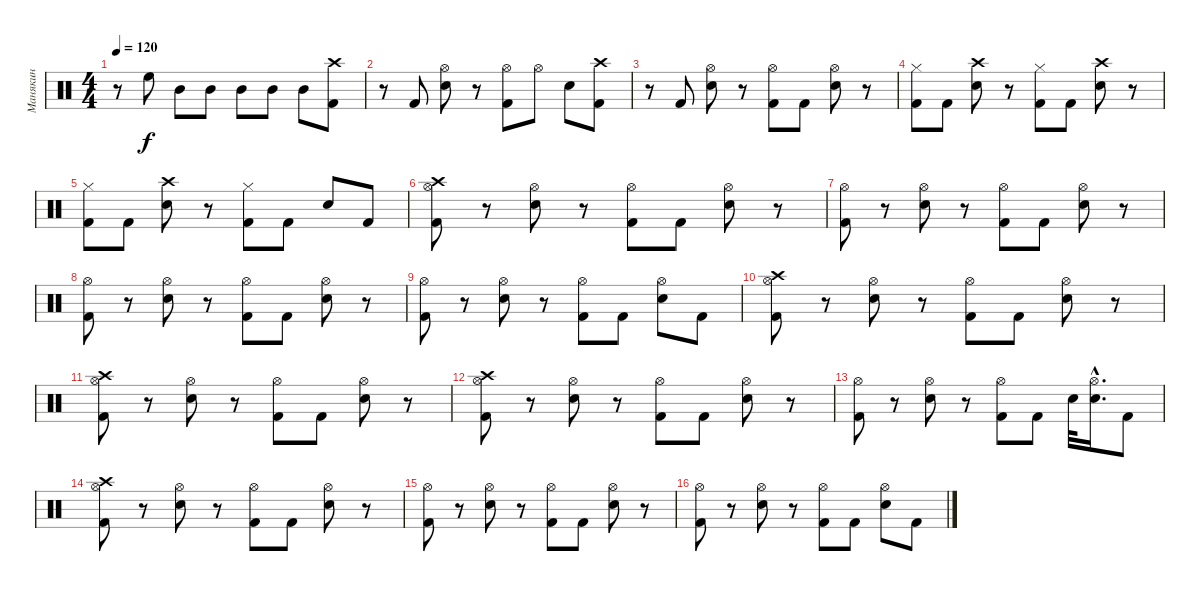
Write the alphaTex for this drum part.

\track ("Манякин" "Манякин") {instrument percussion}
\staff {score}
\articulation defaults
\ts (4 4)
\tempo 120
\clef neutral
\ks c
r.8{dy f} "High Floor Tom (hit)".8 "Mid Tom (hit)".8 "Mid Tom (hit)".8 "Mid Tom (hit)".8 "Mid Tom (hit)".8 "Mid Tom (hit)".8 ("Crash high (hit)" "Kick (hit) 2").8 |
r.8 "Kick (hit) 2".8 ("Hi-Hat (open)" "Electric Snare (hit)").8 r.8 ("Hi-Hat (open)" "Kick (hit) 2").8 "Hi-Hat (open)".8 "Electric Snare (hit)".8 ("Crash high (hit)" "Kick (hit) 2").8 |
r.8 "Kick (hit) 2".8 ("Hi-Hat (open)" "Electric Snare (hit)").8 r.8 ("Hi-Hat (open)" "Kick (hit) 2").8 "Kick (hit) 2".8 ("Hi-Hat (open)" "Electric Snare (hit)").8 r.8 |
("Hi-Hat (closed)" "Kick (hit) 2").8 "Kick (hit) 2".8 ("Crash high (hit)" "Electric Snare (hit)").8 r.8 ("Hi-Hat (closed)" "Kick (hit) 2").8 "Kick (hit) 2".8 ("Crash high (hit)" "Electric Snare (hit)").8 r.8 |
("Hi-Hat (closed)" "Kick (hit) 2").8 "Kick (hit) 2".8 ("Crash high (hit)" "Electric Snare (hit)").8 r.8 ("Hi-Hat (closed)" "Kick (hit) 2").8 "Kick (hit) 2".8 "Electric Snare (hit)".8 "Kick (hit) 2".8 |
("Crash high (hit)" "Hi-Hat (open)" "Kick (hit) 2").8 r.8 ("Hi-Hat (open)" "Electric Snare (hit)").8 r.8 ("Hi-Hat (open)" "Kick (hit) 2").8 "Kick (hit) 2".8 ("Hi-Hat (open)" "Electric Snare (hit)").8 r.8 |
("Hi-Hat (open)" "Kick (hit) 2").8 r.8 ("Hi-Hat (open)" "Electric Snare (hit)").8 r.8 ("Hi-Hat (open)" "Kick (hit) 2").8 "Kick (hit) 2".8 ("Hi-Hat (open)" "Electric Snare (hit)").8 r.8 |
("Hi-Hat (open)" "Kick (hit) 2").8 r.8 ("Hi-Hat (open)" "Electric Snare (hit)").8 r.8 ("Hi-Hat (open)" "Kick (hit) 2").8 "Kick (hit) 2".8 ("Hi-Hat (open)" "Electric Snare (hit)").8 r.8 |
("Hi-Hat (open)" "Kick (hit) 2").8 r.8 ("Hi-Hat (open)" "Electric Snare (hit)").8 r.8 ("Hi-Hat (open)" "Kick (hit) 2").8 "Kick (hit) 2".8 ("Hi-Hat (open)" "Electric Snare (hit)").8 "Kick (hit) 2".8 |
("Crash high (hit)" "Hi-Hat (open)" "Kick (hit) 2").8 r.8 ("Hi-Hat (open)" "Electric Snare (hit)").8 r.8 ("Hi-Hat (open)" "Kick (hit) 2").8 "Kick (hit) 2".8 ("Hi-Hat (open)" "Electric Snare (hit)").8 r.8 |
("Crash high (hit)" "Hi-Hat (open)" "Kick (hit) 2").8 r.8 ("Hi-Hat (open)" "Electric Snare (hit)").8 r.8 ("Hi-Hat (open)" "Kick (hit) 2").8 "Kick (hit) 2".8 ("Hi-Hat (open)" "Electric Snare (hit)").8 r.8 |
("Crash high (hit)" "Hi-Hat (open)" "Kick (hit) 2").8 r.8 ("Hi-Hat (open)" "Electric Snare (hit)").8 r.8 ("Hi-Hat (open)" "Kick (hit) 2").8 "Kick (hit) 2".8 ("Hi-Hat (open)" "Electric Snare (hit)").8 r.8 |
("Hi-Hat (open)" "Kick (hit) 2").8 r.8 ("Hi-Hat (open)" "Electric Snare (hit)").8 r.8 ("Hi-Hat (open)" "Kick (hit) 2").8 "Kick (hit) 2".8 "Electric Snare (hit)".32 ("Hi-Hat (open)"{hac} "Electric Snare (hit)"{hac}).16{d} "Kick (hit) 2".8 |
("Crash high (hit)" "Hi-Hat (open)" "Kick (hit) 2").8 r.8 ("Hi-Hat (open)" "Electric Snare (hit)").8 r.8 ("Hi-Hat (open)" "Kick (hit) 2").8 "Kick (hit) 2".8 ("Hi-Hat (open)" "Electric Snare (hit)").8 r.8 |
("Hi-Hat (open)" "Kick (hit) 2").8 r.8 ("Hi-Hat (open)" "Electric Snare (hit)").8 r.8 ("Hi-Hat (open)" "Kick (hit) 2").8 "Kick (hit) 2".8 ("Hi-Hat (open)" "Electric Snare (hit)").8 r.8 |
("Hi-Hat (open)" "Kick (hit) 2").8 r.8 ("Hi-Hat (open)" "Electric Snare (hit)").8 r.8 ("Hi-Hat (open)" "Kick (hit) 2").8 "Kick (hit) 2".8 ("Hi-Hat (open)" "Electric Snare (hit)").8 "Kick (hit) 2".8
